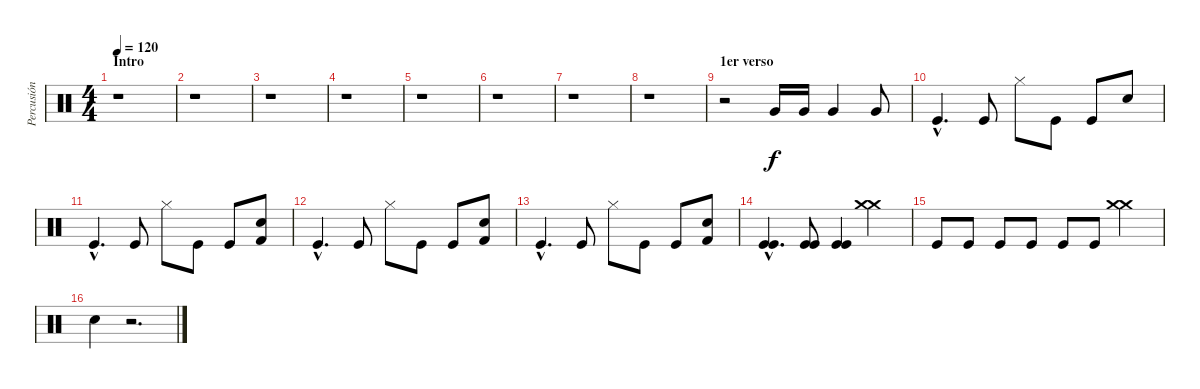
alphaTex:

\track ("Percusión" "Percusión") {instrument percussion}
\staff {score}
\articulation defaults
\ts (4 4)
\section ("" "Intro")
\tempo 120
\clef neutral
\ks c
r.1{dy f} |
r.1 |
r.1 |
r.1 |
r.1 |
r.1 |
r.1 |
r.1 |
\section ("" "1er verso")
r.2 "Very Low Tom (hit)".16 "Very Low Tom (hit)".16 "Very Low Tom (hit)".4 "Very Low Tom (hit)".8 |
"Kick (hit)"{hac}.4{d} "Kick (hit)".8 "Hi-Hat (closed)".8 "Kick (hit)".8 "Kick (hit)".8 "Snare (hit) 2".8 |
"Kick (hit)"{hac}.4{d} "Kick (hit)".8 "Hi-Hat (closed)".8 "Kick (hit)".8 "Kick (hit)".8 ("Snare (hit) 2" "Kick (hit) 2").8 |
"Kick (hit)"{hac}.4{d} "Kick (hit)".8 "Hi-Hat (closed)".8 "Kick (hit)".8 "Kick (hit)".8 ("Snare (hit) 2" "Kick (hit) 2").8 |
"Kick (hit)"{hac}.4{d} "Kick (hit)".8 "Hi-Hat (closed)".8 "Kick (hit)".8 "Kick (hit)".8 ("Snare (hit) 2" "Kick (hit) 2").8 |
("Kick (hit)"{hac} "Kick (hit)"{hac}).4{d} ("Kick (hit)" "Kick (hit)").8 ("Kick (hit)" "Kick (hit)").4 ("Crash medium (hit)" "Crash medium (hit)").4 |
"Kick (hit)".8 "Kick (hit)".8 "Kick (hit)".8 "Kick (hit)".8 "Kick (hit)".8 "Kick (hit)".8 ("Crash medium (hit)" "Crash medium (hit)").4 |
"Snare (hit) 2".4 r.2{d}
